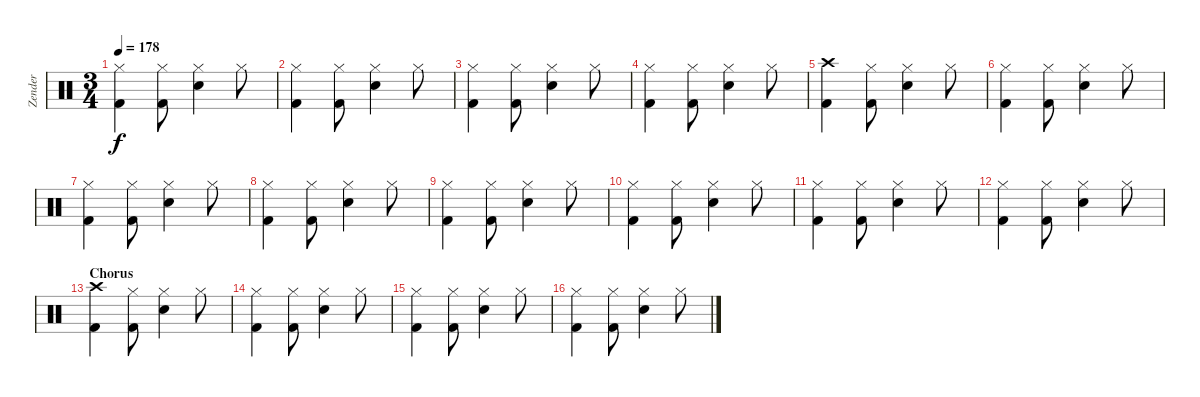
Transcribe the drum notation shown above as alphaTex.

\track ("Zender" "Zender") {instrument percussion}
\staff {score}
\articulation defaults
\ts (3 4)
\tempo 178
\clef neutral
\ks c
("Hi-Hat (closed)" "Kick (hit) 2").4{dy f} ("Hi-Hat (closed)" "Kick (hit) 2").8 ("Electric Snare (hit)" "Hi-Hat (closed)").4 "Hi-Hat (closed)".8 |
("Hi-Hat (closed)" "Kick (hit) 2").4 ("Hi-Hat (closed)" "Kick (hit) 2").8 ("Electric Snare (hit)" "Hi-Hat (closed)").4 "Hi-Hat (closed)".8 |
("Hi-Hat (closed)" "Kick (hit) 2").4 ("Hi-Hat (closed)" "Kick (hit) 2").8 ("Electric Snare (hit)" "Hi-Hat (closed)").4 "Hi-Hat (closed)".8 |
("Hi-Hat (closed)" "Kick (hit) 2").4 ("Hi-Hat (closed)" "Kick (hit) 2").8 ("Electric Snare (hit)" "Hi-Hat (closed)").4 "Hi-Hat (closed)".8 |
("Crash high (hit)" "Kick (hit) 2").4 ("Hi-Hat (closed)" "Kick (hit) 2").8 ("Electric Snare (hit)" "Hi-Hat (closed)").4 "Hi-Hat (closed)".8 |
("Hi-Hat (closed)" "Kick (hit) 2").4 ("Hi-Hat (closed)" "Kick (hit) 2").8 ("Electric Snare (hit)" "Hi-Hat (closed)").4 "Hi-Hat (closed)".8 |
("Hi-Hat (closed)" "Kick (hit) 2").4 ("Hi-Hat (closed)" "Kick (hit) 2").8 ("Electric Snare (hit)" "Hi-Hat (closed)").4 "Hi-Hat (closed)".8 |
("Hi-Hat (closed)" "Kick (hit) 2").4 ("Hi-Hat (closed)" "Kick (hit) 2").8 ("Electric Snare (hit)" "Hi-Hat (closed)").4 "Hi-Hat (closed)".8 |
("Hi-Hat (closed)" "Kick (hit) 2").4 ("Hi-Hat (closed)" "Kick (hit) 2").8 ("Electric Snare (hit)" "Hi-Hat (closed)").4 "Hi-Hat (closed)".8 |
("Hi-Hat (closed)" "Kick (hit) 2").4 ("Hi-Hat (closed)" "Kick (hit) 2").8 ("Electric Snare (hit)" "Hi-Hat (closed)").4 "Hi-Hat (closed)".8 |
("Hi-Hat (closed)" "Kick (hit) 2").4 ("Hi-Hat (closed)" "Kick (hit) 2").8 ("Electric Snare (hit)" "Hi-Hat (closed)").4 "Hi-Hat (closed)".8 |
("Hi-Hat (closed)" "Kick (hit) 2").4 ("Hi-Hat (closed)" "Kick (hit) 2").8 ("Electric Snare (hit)" "Hi-Hat (closed)").4 "Hi-Hat (closed)".8 |
\section ("" "Chorus")
("Crash high (hit)" "Kick (hit) 2").4 ("Hi-Hat (closed)" "Kick (hit) 2").8 ("Electric Snare (hit)" "Hi-Hat (closed)").4 "Hi-Hat (closed)".8 |
("Hi-Hat (closed)" "Kick (hit) 2").4 ("Hi-Hat (closed)" "Kick (hit) 2").8 ("Electric Snare (hit)" "Hi-Hat (closed)").4 "Hi-Hat (closed)".8 |
("Hi-Hat (closed)" "Kick (hit) 2").4 ("Hi-Hat (closed)" "Kick (hit) 2").8 ("Electric Snare (hit)" "Hi-Hat (closed)").4 "Hi-Hat (closed)".8 |
("Hi-Hat (closed)" "Kick (hit) 2").4 ("Hi-Hat (closed)" "Kick (hit) 2").8 ("Electric Snare (hit)" "Hi-Hat (closed)").4 "Hi-Hat (closed)".8
